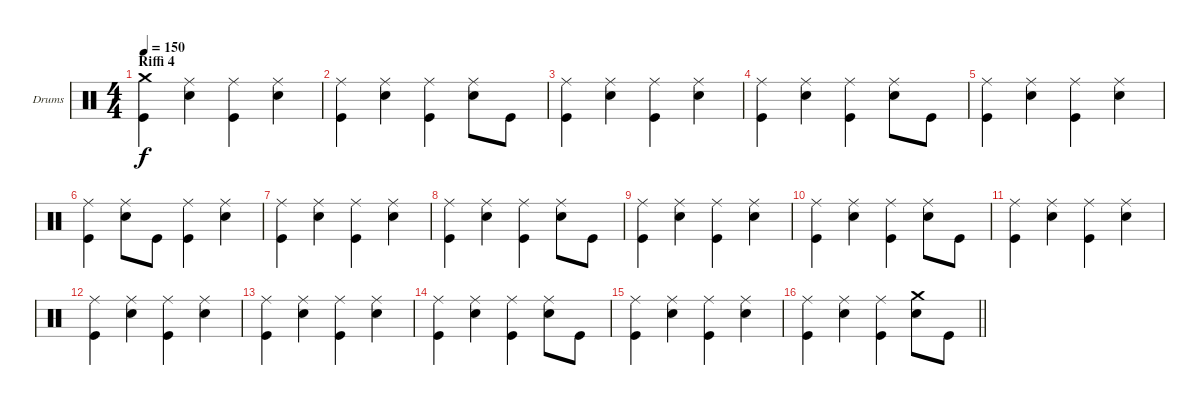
\bracketExtendMode groupsimilarinstruments
\firstSystemTrackNameOrientation horizontal
\otherSystemsTrackNameOrientation horizontal
\track ("Drumkit" "Drums") {instrument percussion}
\staff {score}
\articulation defaults
\ts (4 4)
\section ("" "Riffi 4")
\tempo 150
\clef neutral
\ks c
("Crash medium (hit)" "Kick (hit)").4{dy f} ("Ride (middle)" "Snare (hit) 2").4 ("Ride (middle)" "Kick (hit)").4 ("Ride (middle)" "Snare (hit) 2").4 |
("Ride (middle)" "Kick (hit)").4 ("Ride (middle)" "Snare (hit) 2").4 ("Ride (middle)" "Kick (hit)").4 ("Ride (middle)" "Snare (hit) 2").8 "Kick (hit)".8 |
("Ride (middle)" "Kick (hit)").4 ("Ride (middle)" "Snare (hit) 2").4 ("Ride (middle)" "Kick (hit)").4 ("Ride (middle)" "Snare (hit) 2").4 |
("Ride (middle)" "Kick (hit)").4 ("Ride (middle)" "Snare (hit) 2").4 ("Ride (middle)" "Kick (hit)").4 ("Ride (middle)" "Snare (hit) 2").8 "Kick (hit)".8 |
("Ride (middle)" "Kick (hit)").4 ("Ride (middle)" "Snare (hit) 2").4 ("Ride (middle)" "Kick (hit)").4 ("Ride (middle)" "Snare (hit) 2").4 |
("Ride (middle)" "Kick (hit)").4 ("Ride (middle)" "Snare (hit) 2").8 "Kick (hit)".8 ("Ride (middle)" "Kick (hit)").4 ("Ride (middle)" "Snare (hit) 2").4 |
("Ride (middle)" "Kick (hit)").4 ("Ride (middle)" "Snare (hit) 2").4 ("Ride (middle)" "Kick (hit)").4 ("Ride (middle)" "Snare (hit) 2").4 |
("Ride (middle)" "Kick (hit)").4 ("Ride (middle)" "Snare (hit) 2").4 ("Ride (middle)" "Kick (hit)").4 ("Ride (middle)" "Snare (hit) 2").8 "Kick (hit)".8 |
("Ride (middle)" "Kick (hit)").4 ("Ride (middle)" "Snare (hit) 2").4 ("Ride (middle)" "Kick (hit)").4 ("Ride (middle)" "Snare (hit) 2").4 |
("Ride (middle)" "Kick (hit)").4 ("Ride (middle)" "Snare (hit) 2").4 ("Ride (middle)" "Kick (hit)").4 ("Ride (middle)" "Snare (hit) 2").8 "Kick (hit)".8 |
("Ride (middle)" "Kick (hit)").4 ("Ride (middle)" "Snare (hit) 2").4 ("Ride (middle)" "Kick (hit)").4 ("Ride (middle)" "Snare (hit) 2").4 |
("Ride (middle)" "Kick (hit)").4 ("Ride (middle)" "Snare (hit) 2").4 ("Ride (middle)" "Kick (hit)").4 ("Ride (middle)" "Snare (hit) 2").4 |
("Ride (middle)" "Kick (hit)").4 ("Ride (middle)" "Snare (hit) 2").4 ("Ride (middle)" "Kick (hit)").4 ("Ride (middle)" "Snare (hit) 2").4 |
("Ride (middle)" "Kick (hit)").4 ("Ride (middle)" "Snare (hit) 2").4 ("Ride (middle)" "Kick (hit)").4 ("Ride (middle)" "Snare (hit) 2").8 "Kick (hit)".8 |
("Ride (middle)" "Kick (hit)").4 ("Ride (middle)" "Snare (hit) 2").4 ("Ride (middle)" "Kick (hit)").4 ("Ride (middle)" "Snare (hit) 2").4 |
\barLineRight lightlight
("Ride (middle)" "Kick (hit)").4 ("Ride (middle)" "Snare (hit) 2").4 ("Ride (middle)" "Kick (hit)").4 ("Crash medium (hit)" "Snare (hit) 2").8 "Kick (hit)".8
